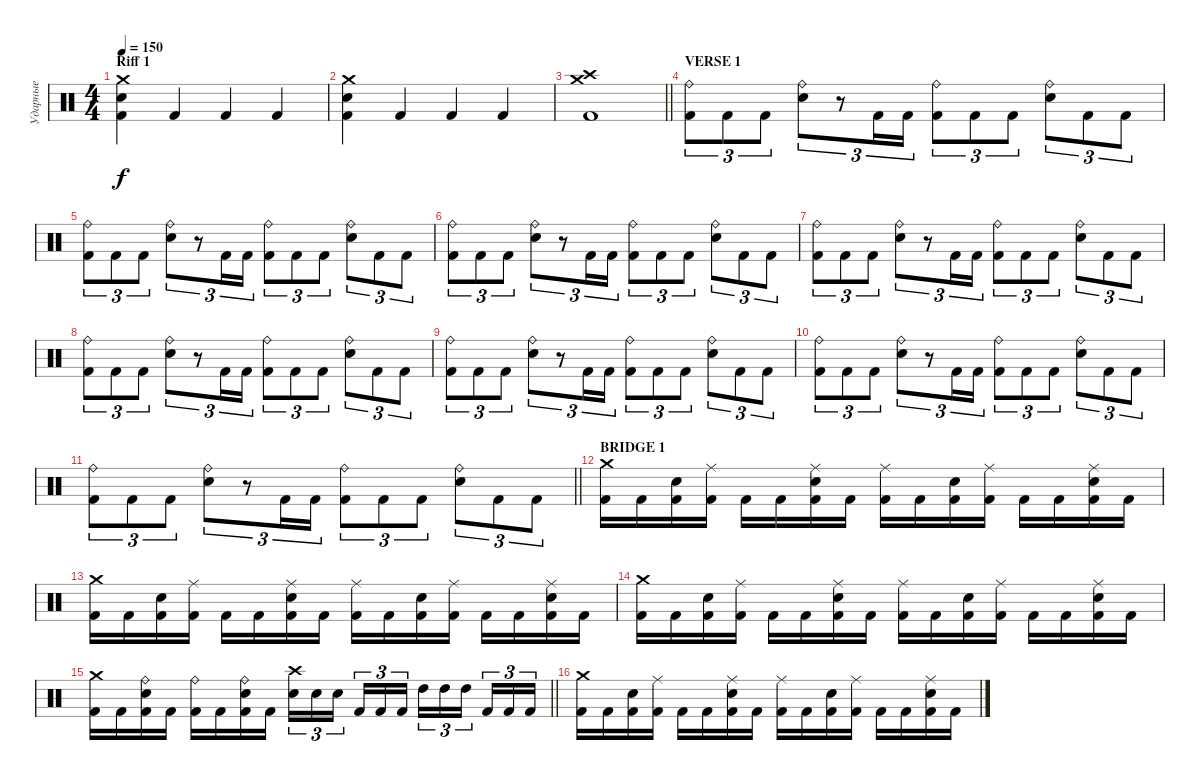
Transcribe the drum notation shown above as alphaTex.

\track ("Ударные" "Ударные") {instrument percussion}
\staff {score}
\articulation defaults
\ts (4 4)
\section ("" "Riff 1")
\tempo 150
\clef neutral
\ks c
("Kick (hit) 2" "Snare (hit) 2" "Crash medium (hit)").4{dy f} "Kick (hit) 2".4 "Kick (hit) 2".4 "Kick (hit) 2".4 |
("Kick (hit) 2" "Snare (hit) 2" "Crash medium (hit)").4 "Kick (hit) 2".4 "Kick (hit) 2".4 "Kick (hit) 2".4 |
\barLineRight lightlight
("Kick (hit) 2" "Crash high (hit)" "Crash medium (hit)").1 |
\section ("" "VERSE 1")
("Kick (hit) 2" "Ride (bell)").8{tu (3 2)} "Kick (hit) 2".8{tu (3 2)} "Kick (hit) 2".8{tu (3 2)} ("Snare (hit) 2" "Ride (bell)").8{tu (3 2)} r.8{tu (3 2)} "Kick (hit) 2".16{tu (3 2)} "Kick (hit) 2".16{tu (3 2)} ("Kick (hit) 2" "Ride (bell)").8{tu (3 2)} "Kick (hit) 2".8{tu (3 2)} "Kick (hit) 2".8{tu (3 2)} ("Snare (hit) 2" "Ride (bell)").8{tu (3 2)} "Kick (hit) 2".8{tu (3 2)} "Kick (hit) 2".8{tu (3 2)} |
("Kick (hit) 2" "Ride (bell)").8{tu (3 2)} "Kick (hit) 2".8{tu (3 2)} "Kick (hit) 2".8{tu (3 2)} ("Snare (hit) 2" "Ride (bell)").8{tu (3 2)} r.8{tu (3 2)} "Kick (hit) 2".16{tu (3 2)} "Kick (hit) 2".16{tu (3 2)} ("Kick (hit) 2" "Ride (bell)").8{tu (3 2)} "Kick (hit) 2".8{tu (3 2)} "Kick (hit) 2".8{tu (3 2)} ("Snare (hit) 2" "Ride (bell)").8{tu (3 2)} "Kick (hit) 2".8{tu (3 2)} "Kick (hit) 2".8{tu (3 2)} |
("Kick (hit) 2" "Ride (bell)").8{tu (3 2)} "Kick (hit) 2".8{tu (3 2)} "Kick (hit) 2".8{tu (3 2)} ("Snare (hit) 2" "Ride (bell)").8{tu (3 2)} r.8{tu (3 2)} "Kick (hit) 2".16{tu (3 2)} "Kick (hit) 2".16{tu (3 2)} ("Kick (hit) 2" "Ride (bell)").8{tu (3 2)} "Kick (hit) 2".8{tu (3 2)} "Kick (hit) 2".8{tu (3 2)} ("Snare (hit) 2" "Ride (bell)").8{tu (3 2)} "Kick (hit) 2".8{tu (3 2)} "Kick (hit) 2".8{tu (3 2)} |
("Kick (hit) 2" "Ride (bell)").8{tu (3 2)} "Kick (hit) 2".8{tu (3 2)} "Kick (hit) 2".8{tu (3 2)} ("Snare (hit) 2" "Ride (bell)").8{tu (3 2)} r.8{tu (3 2)} "Kick (hit) 2".16{tu (3 2)} "Kick (hit) 2".16{tu (3 2)} ("Kick (hit) 2" "Ride (bell)").8{tu (3 2)} "Kick (hit) 2".8{tu (3 2)} "Kick (hit) 2".8{tu (3 2)} ("Snare (hit) 2" "Ride (bell)").8{tu (3 2)} "Kick (hit) 2".8{tu (3 2)} "Kick (hit) 2".8{tu (3 2)} |
("Kick (hit) 2" "Ride (bell)").8{tu (3 2)} "Kick (hit) 2".8{tu (3 2)} "Kick (hit) 2".8{tu (3 2)} ("Snare (hit) 2" "Ride (bell)").8{tu (3 2)} r.8{tu (3 2)} "Kick (hit) 2".16{tu (3 2)} "Kick (hit) 2".16{tu (3 2)} ("Kick (hit) 2" "Ride (bell)").8{tu (3 2)} "Kick (hit) 2".8{tu (3 2)} "Kick (hit) 2".8{tu (3 2)} ("Snare (hit) 2" "Ride (bell)").8{tu (3 2)} "Kick (hit) 2".8{tu (3 2)} "Kick (hit) 2".8{tu (3 2)} |
("Kick (hit) 2" "Ride (bell)").8{tu (3 2)} "Kick (hit) 2".8{tu (3 2)} "Kick (hit) 2".8{tu (3 2)} ("Snare (hit) 2" "Ride (bell)").8{tu (3 2)} r.8{tu (3 2)} "Kick (hit) 2".16{tu (3 2)} "Kick (hit) 2".16{tu (3 2)} ("Kick (hit) 2" "Ride (bell)").8{tu (3 2)} "Kick (hit) 2".8{tu (3 2)} "Kick (hit) 2".8{tu (3 2)} ("Snare (hit) 2" "Ride (bell)").8{tu (3 2)} "Kick (hit) 2".8{tu (3 2)} "Kick (hit) 2".8{tu (3 2)} |
("Kick (hit) 2" "Ride (bell)").8{tu (3 2)} "Kick (hit) 2".8{tu (3 2)} "Kick (hit) 2".8{tu (3 2)} ("Snare (hit) 2" "Ride (bell)").8{tu (3 2)} r.8{tu (3 2)} "Kick (hit) 2".16{tu (3 2)} "Kick (hit) 2".16{tu (3 2)} ("Kick (hit) 2" "Ride (bell)").8{tu (3 2)} "Kick (hit) 2".8{tu (3 2)} "Kick (hit) 2".8{tu (3 2)} ("Snare (hit) 2" "Ride (bell)").8{tu (3 2)} "Kick (hit) 2".8{tu (3 2)} "Kick (hit) 2".8{tu (3 2)} |
\barLineRight lightlight
("Kick (hit) 2" "Ride (bell)").8{tu (3 2)} "Kick (hit) 2".8{tu (3 2)} "Kick (hit) 2".8{tu (3 2)} ("Snare (hit) 2" "Ride (bell)").8{tu (3 2)} r.8{tu (3 2)} "Kick (hit) 2".16{tu (3 2)} "Kick (hit) 2".16{tu (3 2)} ("Kick (hit) 2" "Ride (bell)").8{tu (3 2)} "Kick (hit) 2".8{tu (3 2)} "Kick (hit) 2".8{tu (3 2)} ("Snare (hit) 2" "Ride (bell)").8{tu (3 2)} "Kick (hit) 2".8{tu (3 2)} "Kick (hit) 2".8{tu (3 2)} |
\section ("" "BRIDGE 1")
("Kick (hit) 2" "Crash medium (hit)").16 "Kick (hit) 2".16 ("Kick (hit) 2" "Snare (hit) 2").16 ("Kick (hit) 2" "Ride (middle)").16 "Kick (hit) 2".16 "Kick (hit) 2".16 ("Kick (hit) 2" "Snare (hit) 2" "Ride (middle)").16 "Kick (hit) 2".16 ("Kick (hit) 2" "Ride (middle)").16 "Kick (hit) 2".16 ("Kick (hit) 2" "Snare (hit) 2").16 ("Kick (hit) 2" "Ride (middle)").16 "Kick (hit) 2".16 "Kick (hit) 2".16 ("Kick (hit) 2" "Snare (hit) 2" "Ride (middle)").16 "Kick (hit) 2".16 |
("Kick (hit) 2" "Crash medium (hit)").16 "Kick (hit) 2".16 ("Kick (hit) 2" "Snare (hit) 2").16 ("Kick (hit) 2" "Ride (middle)").16 "Kick (hit) 2".16 "Kick (hit) 2".16 ("Kick (hit) 2" "Snare (hit) 2" "Ride (middle)").16 "Kick (hit) 2".16 ("Kick (hit) 2" "Ride (middle)").16 "Kick (hit) 2".16 ("Kick (hit) 2" "Snare (hit) 2").16 ("Kick (hit) 2" "Ride (middle)").16 "Kick (hit) 2".16 "Kick (hit) 2".16 ("Kick (hit) 2" "Snare (hit) 2" "Ride (middle)").16 "Kick (hit) 2".16 |
("Kick (hit) 2" "Crash medium (hit)").16 "Kick (hit) 2".16 ("Kick (hit) 2" "Snare (hit) 2").16 ("Kick (hit) 2" "Ride (middle)").16 "Kick (hit) 2".16 "Kick (hit) 2".16 ("Kick (hit) 2" "Snare (hit) 2" "Ride (middle)").16 "Kick (hit) 2".16 ("Kick (hit) 2" "Ride (middle)").16 "Kick (hit) 2".16 ("Kick (hit) 2" "Snare (hit) 2").16 ("Kick (hit) 2" "Ride (middle)").16 "Kick (hit) 2".16 "Kick (hit) 2".16 ("Kick (hit) 2" "Snare (hit) 2" "Ride (middle)").16 "Kick (hit) 2".16 |
\barLineRight lightlight
("Kick (hit) 2" "Crash medium (hit)").16 "Kick (hit) 2".16 ("Kick (hit) 2" "Snare (hit) 2" "Ride (bell)").16 "Kick (hit) 2".16 ("Kick (hit) 2" "Ride (bell)").16 "Kick (hit) 2".16 ("Kick (hit) 2" "Snare (hit) 2" "Ride (bell)").16 "Kick (hit) 2".16 ("Snare (hit) 2" "Crash high (hit)").16{tu (3 2)} "Snare (hit) 2".16{tu (3 2)} "Snare (hit) 2".16{tu (3 2)} "Kick (hit) 2".16{tu (3 2)} "Kick (hit) 2".16{tu (3 2)} "Kick (hit) 2".16{tu (3 2)} "High Tom (hit)".16{tu (3 2)} "High Tom (hit)".16{tu (3 2)} "High Tom (hit)".16{tu (3 2)} "Kick (hit) 2".16{tu (3 2)} "Kick (hit) 2".16{tu (3 2)} "Kick (hit) 2".16{tu (3 2)} |
("Kick (hit) 2" "Crash medium (hit)").16 "Kick (hit) 2".16 ("Kick (hit) 2" "Snare (hit) 2").16 ("Kick (hit) 2" "Ride (middle)").16 "Kick (hit) 2".16 "Kick (hit) 2".16 ("Kick (hit) 2" "Snare (hit) 2" "Ride (middle)").16 "Kick (hit) 2".16 ("Kick (hit) 2" "Ride (middle)").16 "Kick (hit) 2".16 ("Kick (hit) 2" "Snare (hit) 2").16 ("Kick (hit) 2" "Ride (middle)").16 "Kick (hit) 2".16 "Kick (hit) 2".16 ("Kick (hit) 2" "Snare (hit) 2" "Ride (middle)").16 "Kick (hit) 2".16
